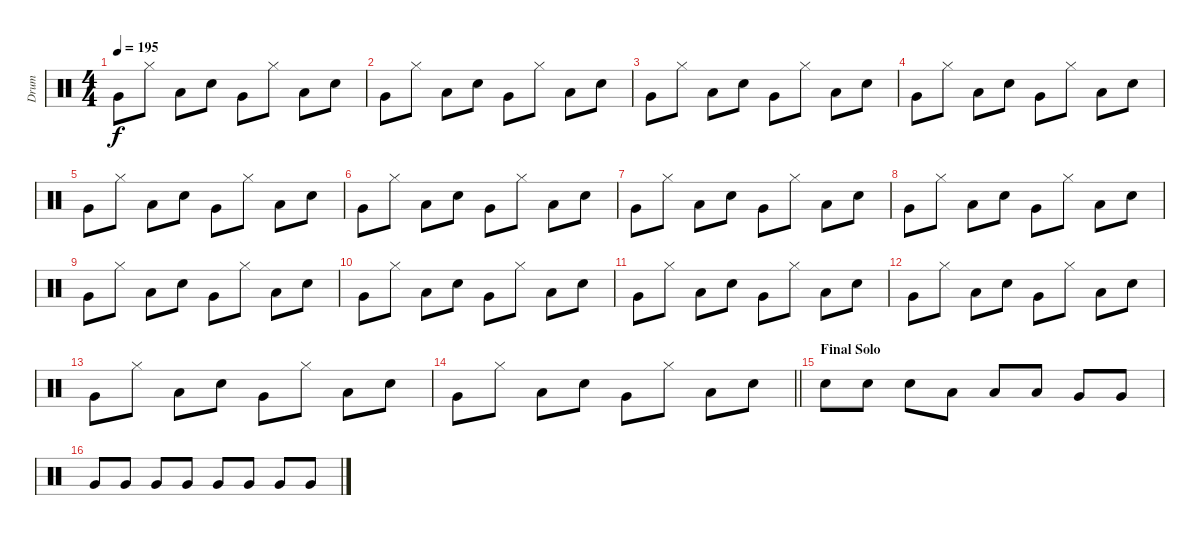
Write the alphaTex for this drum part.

\track ("Drum" "Drum") {instrument percussion}
\staff {score}
\articulation defaults
\ts (4 4)
\tempo 195
\clef neutral
\ks c "Very Low Tom (hit)".8{dy f} "Hi-Hat (closed)".8 "Low Floor Tom (hit)".8 "Electric Snare (hit)".8 "Very Low Tom (hit)".8 "Hi-Hat (closed)".8 "Low Floor Tom (hit)".8 "Electric Snare (hit)".8
|
"Very Low Tom (hit)".8 "Hi-Hat (closed)".8 "Low Floor Tom (hit)".8 "Electric Snare (hit)".8 "Very Low Tom (hit)".8 "Hi-Hat (closed)".8 "Low Floor Tom (hit)".8 "Electric Snare (hit)".8 |
"Very Low Tom (hit)".8 "Hi-Hat (closed)".8 "Low Floor Tom (hit)".8 "Electric Snare (hit)".8 "Very Low Tom (hit)".8 "Hi-Hat (closed)".8 "Low Floor Tom (hit)".8 "Electric Snare (hit)".8 |
"Very Low Tom (hit)".8 "Hi-Hat (closed)".8 "Low Floor Tom (hit)".8 "Electric Snare (hit)".8 "Very Low Tom (hit)".8 "Hi-Hat (closed)".8 "Low Floor Tom (hit)".8 "Electric Snare (hit)".8 |
"Very Low Tom (hit)".8 "Hi-Hat (closed)".8 "Low Floor Tom (hit)".8 "Electric Snare (hit)".8 "Very Low Tom (hit)".8 "Hi-Hat (closed)".8 "Low Floor Tom (hit)".8 "Electric Snare (hit)".8 |
"Very Low Tom (hit)".8 "Hi-Hat (closed)".8 "Low Floor Tom (hit)".8 "Electric Snare (hit)".8 "Very Low Tom (hit)".8 "Hi-Hat (closed)".8 "Low Floor Tom (hit)".8 "Electric Snare (hit)".8 |
"Very Low Tom (hit)".8 "Hi-Hat (closed)".8 "Low Floor Tom (hit)".8 "Electric Snare (hit)".8 "Very Low Tom (hit)".8 "Hi-Hat (closed)".8 "Low Floor Tom (hit)".8 "Electric Snare (hit)".8 |
"Very Low Tom (hit)".8 "Hi-Hat (closed)".8 "Low Floor Tom (hit)".8 "Electric Snare (hit)".8 "Very Low Tom (hit)".8 "Hi-Hat (closed)".8 "Low Floor Tom (hit)".8 "Electric Snare (hit)".8 |
"Very Low Tom (hit)".8 "Hi-Hat (closed)".8 "Low Floor Tom (hit)".8 "Electric Snare (hit)".8 "Very Low Tom (hit)".8 "Hi-Hat (closed)".8 "Low Floor Tom (hit)".8 "Electric Snare (hit)".8 |
"Very Low Tom (hit)".8 "Hi-Hat (closed)".8 "Low Floor Tom (hit)".8 "Electric Snare (hit)".8 "Very Low Tom (hit)".8 "Hi-Hat (closed)".8 "Low Floor Tom (hit)".8 "Electric Snare (hit)".8 |
"Very Low Tom (hit)".8 "Hi-Hat (closed)".8 "Low Floor Tom (hit)".8 "Electric Snare (hit)".8 "Very Low Tom (hit)".8 "Hi-Hat (closed)".8 "Low Floor Tom (hit)".8 "Electric Snare (hit)".8 |
"Very Low Tom (hit)".8 "Hi-Hat (closed)".8 "Low Floor Tom (hit)".8 "Electric Snare (hit)".8 "Very Low Tom (hit)".8 "Hi-Hat (closed)".8 "Low Floor Tom (hit)".8 "Electric Snare (hit)".8 |
"Very Low Tom (hit)".8 "Hi-Hat (closed)".8 "Low Floor Tom (hit)".8 "Electric Snare (hit)".8 "Very Low Tom (hit)".8 "Hi-Hat (closed)".8 "Low Floor Tom (hit)".8 "Electric Snare (hit)".8 |
\barLineRight lightlight "Very Low Tom (hit)".8 "Hi-Hat (closed)".8 "Low Floor Tom (hit)".8 "Electric Snare (hit)".8 "Very Low Tom (hit)".8 "Hi-Hat (closed)".8 "Low Floor Tom (hit)".8 "Electric Snare (hit)".8
|
\section ("" "Final Solo")
"Electric Snare (hit)".8 "Electric Snare (hit)".8 "Electric Snare (hit)".8 "Low Floor Tom (hit)".8 "Low Floor Tom (hit)".8 "Low Floor Tom (hit)".8 "Very Low Tom (hit)".8 "Very Low Tom (hit)".8 |
"Very Low Tom (hit)".8 "Very Low Tom (hit)".8 "Very Low Tom (hit)".8 "Very Low Tom (hit)".8 "Very Low Tom (hit)".8 "Very Low Tom (hit)".8 "Very Low Tom (hit)".8 "Very Low Tom (hit)".8
